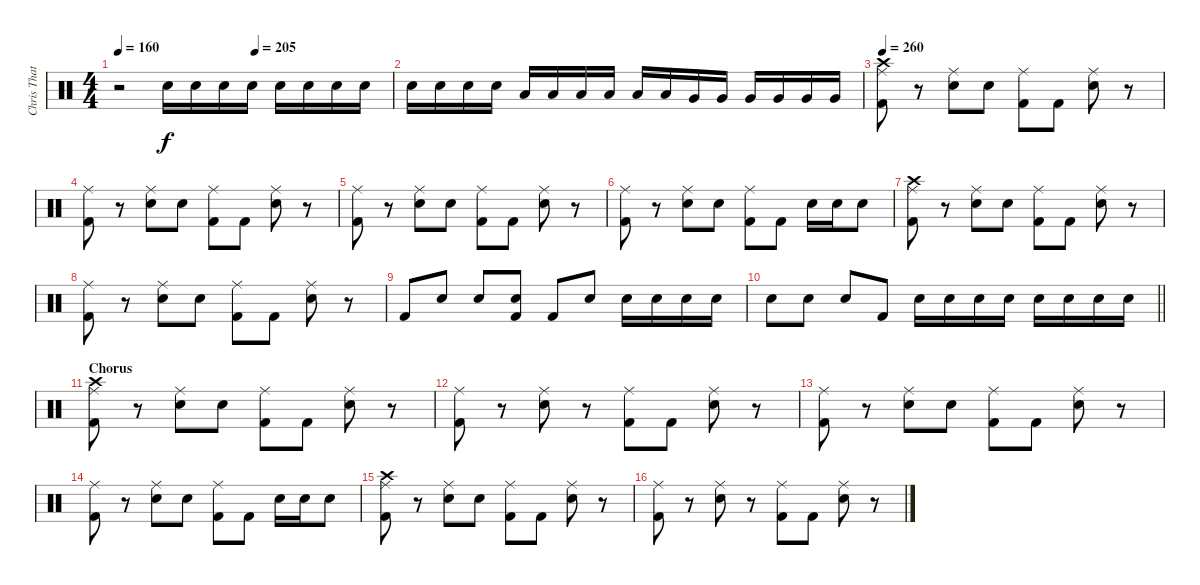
\track ("Chris Thatcher    - Drums" "Chris That") {instrument percussion}
\staff {score}
\articulation defaults
\ts (4 4)
\tempo 160
\tempo (205 0.5)
\clef neutral
\ks c
r.2{dy f} "Electric Snare (hit)".16 "Electric Snare (hit)".16 "Electric Snare (hit)".16 "Electric Snare (hit)".16 "Electric Snare (hit)".16 "Electric Snare (hit)".16 "Electric Snare (hit)".16 "Electric Snare (hit)".16 |
"Electric Snare (hit)".16 "Electric Snare (hit)".16 "Electric Snare (hit)".16 "Electric Snare (hit)".16 "Low Tom (hit)".16 "Low Tom (hit)".16 "Low Tom (hit)".16 "Low Tom (hit)".16 "Low Tom (hit)".16 "Low Tom (hit)".16 "Very Low Tom (hit)".16 "Very Low Tom (hit)".16 "Very Low Tom (hit)".16 "Very Low Tom (hit)".16 "Very Low Tom (hit)".16 "Very Low Tom (hit)".16 |
\tempo 260
("Crash high (hit)" "Ride (middle)" "Kick (hit) 2").8 r.8 ("Ride (middle)" "Electric Snare (hit)").8 "Electric Snare (hit)".8 ("Ride (middle)" "Kick (hit) 2").8 "Kick (hit) 2".8 ("Ride (middle)" "Electric Snare (hit)").8 r.8 |
("Ride (middle)" "Kick (hit) 2").8 r.8 ("Ride (middle)" "Electric Snare (hit)").8 "Electric Snare (hit)".8 ("Ride (middle)" "Kick (hit) 2").8 "Kick (hit) 2".8 ("Ride (middle)" "Electric Snare (hit)").8 r.8 |
("Ride (middle)" "Kick (hit) 2").8 r.8 ("Ride (middle)" "Electric Snare (hit)").8 "Electric Snare (hit)".8 ("Ride (middle)" "Kick (hit) 2").8 "Kick (hit) 2".8 ("Ride (middle)" "Electric Snare (hit)").8 r.8 |
("Ride (middle)" "Kick (hit) 2").8 r.8 ("Ride (middle)" "Electric Snare (hit)").8 "Electric Snare (hit)".8 ("Ride (middle)" "Kick (hit) 2").8 "Kick (hit) 2".8 "Electric Snare (hit)".16 "Electric Snare (hit)".16 "Electric Snare (hit)".8 |
("Crash high (hit)" "Ride (middle)" "Kick (hit) 2").8 r.8 ("Ride (middle)" "Electric Snare (hit)").8 "Electric Snare (hit)".8 ("Ride (middle)" "Kick (hit) 2").8 "Kick (hit) 2".8 ("Ride (middle)" "Electric Snare (hit)").8 r.8 |
("Ride (middle)" "Kick (hit) 2").8 r.8 ("Ride (middle)" "Electric Snare (hit)").8 "Electric Snare (hit)".8 ("Ride (middle)" "Kick (hit) 2").8 "Kick (hit) 2".8 ("Ride (middle)" "Electric Snare (hit)").8 r.8 |
"Kick (hit) 2".8 "Electric Snare (hit)".8 "Electric Snare (hit)".8 ("Kick (hit) 2" "Electric Snare (hit)").8 "Kick (hit) 2".8 "Electric Snare (hit)".8 "Electric Snare (hit)".16 "Electric Snare (hit)".16 "Electric Snare (hit)".16 "Electric Snare (hit)".16 |
\barLineRight lightlight "Electric Snare (hit)".8 "Electric Snare (hit)".8 "Electric Snare (hit)".8 "Kick (hit) 2".8 "Electric Snare (hit)".16 "Electric Snare (hit)".16 "Electric Snare (hit)".16 "Electric Snare (hit)".16 "Electric Snare (hit)".16 "Electric Snare (hit)".16 "Electric Snare (hit)".16 "Electric Snare (hit)".16
|
\section ("" "Chorus")
("Crash high (hit)" "Ride (middle)" "Kick (hit) 2").8 r.8 ("Ride (middle)" "Electric Snare (hit)").8 "Electric Snare (hit)".8 ("Ride (middle)" "Kick (hit) 2").8 "Kick (hit) 2".8 ("Ride (middle)" "Electric Snare (hit)").8 r.8 |
("Ride (middle)" "Kick (hit) 2").8 r.8 ("Ride (middle)" "Electric Snare (hit)").8 r.8 ("Ride (middle)" "Kick (hit) 2").8 "Kick (hit) 2".8 ("Ride (middle)" "Electric Snare (hit)").8 r.8 |
("Ride (middle)" "Kick (hit) 2").8 r.8 ("Ride (middle)" "Electric Snare (hit)").8 "Electric Snare (hit)".8 ("Ride (middle)" "Kick (hit) 2").8 "Kick (hit) 2".8 ("Ride (middle)" "Electric Snare (hit)").8 r.8 |
("Ride (middle)" "Kick (hit) 2").8 r.8 ("Ride (middle)" "Electric Snare (hit)").8 "Electric Snare (hit)".8 ("Ride (middle)" "Kick (hit) 2").8 "Kick (hit) 2".8 "Electric Snare (hit)".16 "Electric Snare (hit)".16 "Electric Snare (hit)".8 |
("Crash high (hit)" "Ride (middle)" "Kick (hit) 2").8 r.8 ("Ride (middle)" "Electric Snare (hit)").8 "Electric Snare (hit)".8 ("Ride (middle)" "Kick (hit) 2").8 "Kick (hit) 2".8 ("Ride (middle)" "Electric Snare (hit)").8 r.8 |
("Ride (middle)" "Kick (hit) 2").8 r.8 ("Ride (middle)" "Electric Snare (hit)").8 r.8 ("Ride (middle)" "Kick (hit) 2").8 "Kick (hit) 2".8 ("Ride (middle)" "Electric Snare (hit)").8 r.8
